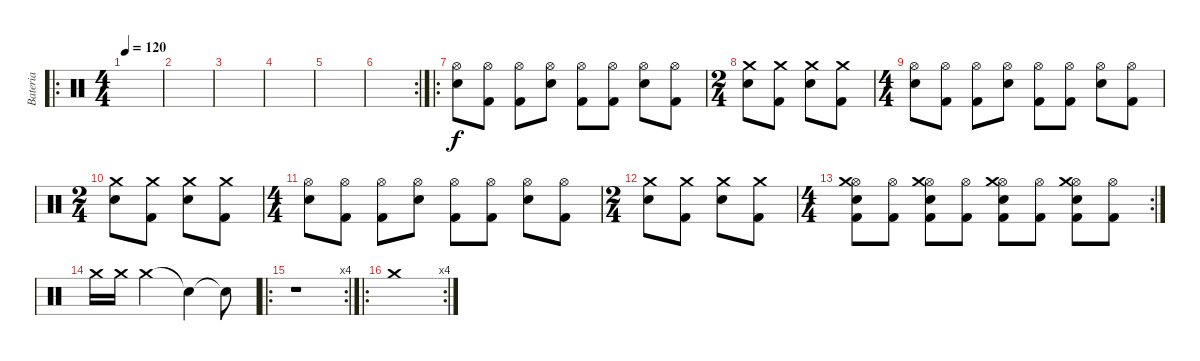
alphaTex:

\track ("Bateria" "Bateria") {instrument percussion}
\staff {score}
\articulation defaults
\ro
\ts (4 4)
\tempo 120
\clef neutral
\ks c
|
|
|
|
|
\rc 2
|
\ro
("Hi-Hat (open)" "Snare (hit) 2").8 ("Hi-Hat (open)" "Kick (hit) 2").8 ("Hi-Hat (open)" "Kick (hit) 2").8 ("Hi-Hat (open)" "Snare (hit) 2").8 ("Hi-Hat (open)" "Kick (hit) 2").8 ("Hi-Hat (open)" "Kick (hit) 2").8 ("Hi-Hat (open)" "Snare (hit) 2").8 ("Hi-Hat (open)" "Kick (hit) 2").8 |
\ts (2 4)
("Crash medium (hit)" "Electric Snare (hit)").8 ("Crash medium (hit)" "Kick (hit) 2").8 ("Crash medium (hit)" "Electric Snare (hit)").8 ("Crash medium (hit)" "Kick (hit) 2").8 |
\ts (4 4)
("Hi-Hat (open)" "Snare (hit) 2").8 ("Hi-Hat (open)" "Kick (hit) 2").8 ("Hi-Hat (open)" "Kick (hit) 2").8 ("Hi-Hat (open)" "Snare (hit) 2").8 ("Hi-Hat (open)" "Kick (hit) 2").8 ("Hi-Hat (open)" "Kick (hit) 2").8 ("Hi-Hat (open)" "Snare (hit) 2").8 ("Hi-Hat (open)" "Kick (hit) 2").8 |
\ts (2 4)
("Crash medium (hit)" "Electric Snare (hit)").8 ("Crash medium (hit)" "Kick (hit) 2").8 ("Crash medium (hit)" "Electric Snare (hit)").8 ("Crash medium (hit)" "Kick (hit) 2").8 |
\ts (4 4)
("Hi-Hat (open)" "Snare (hit) 2").8 ("Hi-Hat (open)" "Kick (hit) 2").8 ("Hi-Hat (open)" "Kick (hit) 2").8 ("Hi-Hat (open)" "Snare (hit) 2").8 ("Hi-Hat (open)" "Kick (hit) 2").8 ("Hi-Hat (open)" "Kick (hit) 2").8 ("Hi-Hat (open)" "Snare (hit) 2").8 ("Hi-Hat (open)" "Kick (hit) 2").8 |
\ts (2 4)
("Crash medium (hit)" "Electric Snare (hit)").8 ("Crash medium (hit)" "Kick (hit) 2").8 ("Crash medium (hit)" "Electric Snare (hit)").8 ("Crash medium (hit)" "Kick (hit) 2").8 |
\rc 2
\ts (4 4)
("Hi-Hat (open)" "Crash medium (hit)" "Electric Snare (hit)" "Kick (hit) 2").8 ("Hi-Hat (open)" "Kick (hit) 2").8 ("Hi-Hat (open)" "Crash medium (hit)" "Electric Snare (hit)" "Kick (hit) 2").8 ("Hi-Hat (open)" "Kick (hit) 2").8 ("Hi-Hat (open)" "Crash medium (hit)" "Electric Snare (hit)" "Kick (hit) 2").8 ("Hi-Hat (open)" "Kick (hit) 2").8 ("Hi-Hat (open)" "Crash medium (hit)" "Electric Snare (hit)" "Kick (hit) 2").8 ("Hi-Hat (open)" "Kick (hit) 2").8 |
"Crash medium (hit)".16 "Crash medium (hit)".16 "Crash medium (hit)".2 "Snare (hit)"{t}.4 "Snare (hit)"{t}.8 |
\ro
\rc 4
r.1 |
\ro
\rc 4 "Crash medium (hit)".1
